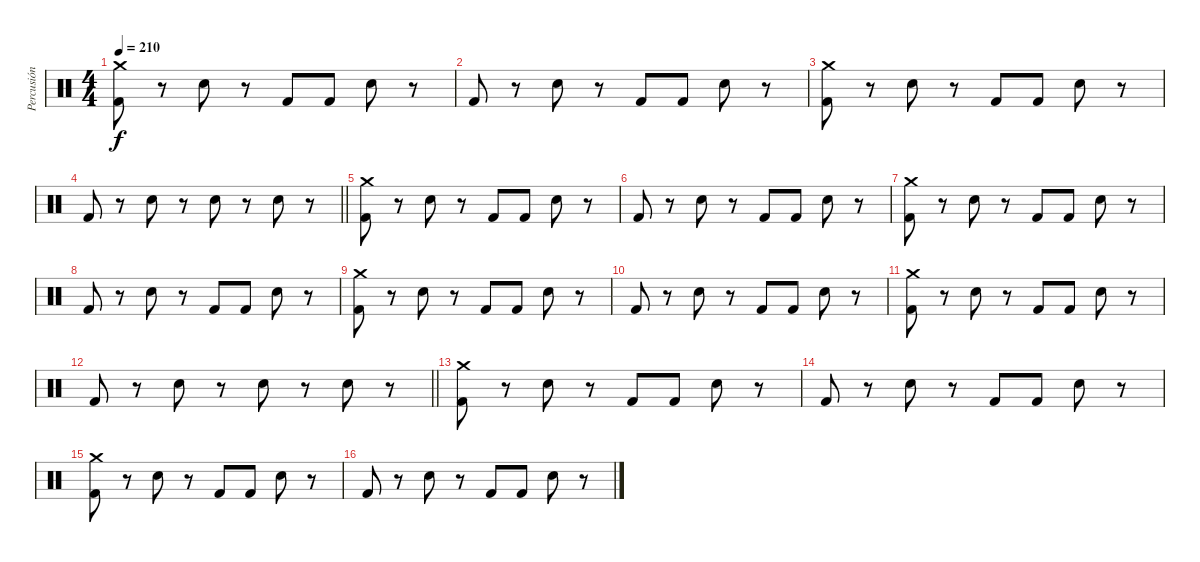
\track ("Percusión" "Percusión") {instrument percussion}
\staff {score}
\articulation defaults
\ts (4 4)
\tempo 210
\clef neutral
\ks c
("Crash medium (hit)" "Kick (hit) 2").8{dy f} r.8 "Electric Snare (hit)".8 r.8 "Kick (hit) 2".8 "Kick (hit) 2".8 "Electric Snare (hit)".8 r.8 |
"Kick (hit) 2".8 r.8 "Electric Snare (hit)".8 r.8 "Kick (hit) 2".8 "Kick (hit) 2".8 "Electric Snare (hit)".8 r.8 |
("Crash medium (hit)" "Kick (hit) 2").8 r.8 "Electric Snare (hit)".8 r.8 "Kick (hit) 2".8 "Kick (hit) 2".8 "Electric Snare (hit)".8 r.8 |
\barLineRight lightlight "Kick (hit) 2".8
r.8 "Electric Snare (hit)".8 r.8 "Electric Snare (hit)".8 r.8 "Electric Snare (hit)".8 r.8 |
("Crash medium (hit)" "Kick (hit) 2").8 r.8 "Electric Snare (hit)".8 r.8 "Kick (hit) 2".8 "Kick (hit) 2".8 "Electric Snare (hit)".8 r.8 |
"Kick (hit) 2".8 r.8 "Electric Snare (hit)".8 r.8 "Kick (hit) 2".8 "Kick (hit) 2".8 "Electric Snare (hit)".8 r.8 |
("Crash medium (hit)" "Kick (hit) 2").8 r.8 "Electric Snare (hit)".8 r.8 "Kick (hit) 2".8 "Kick (hit) 2".8 "Electric Snare (hit)".8 r.8 |
"Kick (hit) 2".8 r.8 "Electric Snare (hit)".8 r.8 "Kick (hit) 2".8 "Kick (hit) 2".8 "Electric Snare (hit)".8 r.8 |
("Crash medium (hit)" "Kick (hit) 2").8 r.8 "Electric Snare (hit)".8 r.8 "Kick (hit) 2".8 "Kick (hit) 2".8 "Electric Snare (hit)".8 r.8 |
"Kick (hit) 2".8 r.8 "Electric Snare (hit)".8 r.8 "Kick (hit) 2".8 "Kick (hit) 2".8 "Electric Snare (hit)".8 r.8 |
("Crash medium (hit)" "Kick (hit) 2").8 r.8 "Electric Snare (hit)".8 r.8 "Kick (hit) 2".8 "Kick (hit) 2".8 "Electric Snare (hit)".8 r.8 |
\barLineRight lightlight "Kick (hit) 2".8
r.8 "Electric Snare (hit)".8 r.8 "Electric Snare (hit)".8 r.8 "Electric Snare (hit)".8 r.8 |
("Crash medium (hit)" "Kick (hit) 2").8 r.8 "Electric Snare (hit)".8 r.8 "Kick (hit) 2".8 "Kick (hit) 2".8 "Electric Snare (hit)".8 r.8 |
"Kick (hit) 2".8 r.8 "Electric Snare (hit)".8 r.8 "Kick (hit) 2".8 "Kick (hit) 2".8 "Electric Snare (hit)".8 r.8 |
("Crash medium (hit)" "Kick (hit) 2").8 r.8 "Electric Snare (hit)".8 r.8 "Kick (hit) 2".8 "Kick (hit) 2".8 "Electric Snare (hit)".8 r.8 |
"Kick (hit) 2".8 r.8 "Electric Snare (hit)".8 r.8 "Kick (hit) 2".8 "Kick (hit) 2".8 "Electric Snare (hit)".8 r.8
